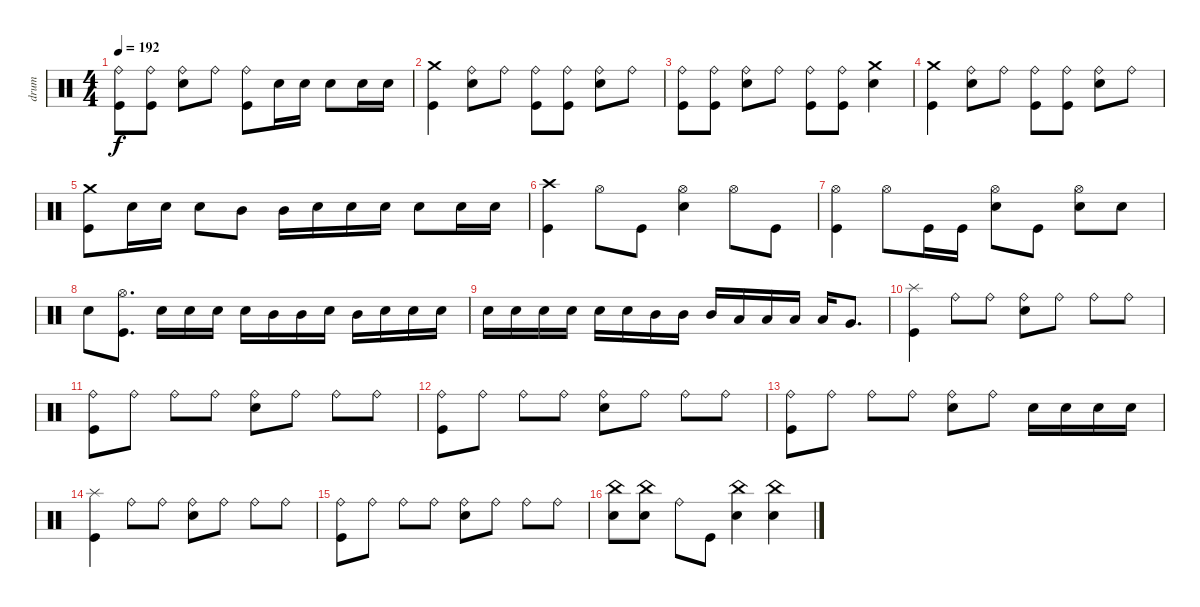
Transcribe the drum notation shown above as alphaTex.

\track ("drum" "drum") {instrument percussion}
\staff {score}
\articulation defaults
\ts (4 4)
\tempo 192
\clef neutral
\ks c
("Kick (hit)" "Ride (bell)").8{dy f} ("Kick (hit)" "Ride (bell)").8 ("Electric Snare (hit)" "Ride (bell)").8 "Ride (bell)".8 ("Kick (hit)" "Ride (bell)").8 "Electric Snare (hit)".16 "Electric Snare (hit)".16 "Electric Snare (hit)".8 "Electric Snare (hit)".16 "Electric Snare (hit)".16 |
("Kick (hit)" "Crash medium (hit)").4 ("Electric Snare (hit)" "Ride (bell)").8 "Ride (bell)".8 ("Kick (hit)" "Ride (bell)").8 ("Kick (hit)" "Ride (bell)").8 ("Electric Snare (hit)" "Ride (bell)").8 "Ride (bell)".8 |
("Kick (hit)" "Ride (bell)").8 ("Kick (hit)" "Ride (bell)").8 ("Electric Snare (hit)" "Ride (bell)").8 "Ride (bell)".8 ("Kick (hit)" "Ride (bell)").8 ("Kick (hit)" "Ride (bell)").8 ("Electric Snare (hit)" "Crash medium (hit)").4 |
("Kick (hit)" "Crash medium (hit)").4 ("Electric Snare (hit)" "Ride (bell)").8 "Ride (bell)".8 ("Kick (hit)" "Ride (bell)").8 ("Kick (hit)" "Ride (bell)").8 ("Electric Snare (hit)" "Ride (bell)").8 "Ride (bell)".8 |
("Kick (hit)" "Crash medium (hit)").8 "Electric Snare (hit)".16 "Electric Snare (hit)".16 "Electric Snare (hit)".8 "Mid Tom (hit)".8 "Mid Tom (hit)".16 "Electric Snare (hit)".16 "Electric Snare (hit)".16 "Electric Snare (hit)".16 "Electric Snare (hit)".8 "Electric Snare (hit)".16 "Electric Snare (hit)".16 |
("Kick (hit)" "Crash high (hit)").4 "Hi-Hat (open)".8 "Kick (hit)".8 ("Electric Snare (hit)" "Hi-Hat (open)").4 "Hi-Hat (open)".8 "Kick (hit)".8 |
("Kick (hit)" "Hi-Hat (open)").4 "Hi-Hat (open)".8 "Kick (hit)".16 "Kick (hit)".16 ("Electric Snare (hit)" "Hi-Hat (open)").8 "Kick (hit)".8 ("Electric Snare (hit)" "Hi-Hat (open)").8 "Electric Snare (hit)".8 |
"Electric Snare (hit)".8 ("Kick (hit)" "Hi-Hat (open)").8{d} "Electric Snare (hit)".16 "Electric Snare (hit)".16 "Electric Snare (hit)".16 "Electric Snare (hit)".16 "Mid Tom (hit)".16 "Mid Tom (hit)".16 "Electric Snare (hit)".16 "Mid Tom (hit)".16 "Electric Snare (hit)".16 "Electric Snare (hit)".16 "Electric Snare (hit)".16 |
"Electric Snare (hit)".16 "Electric Snare (hit)".16 "Electric Snare (hit)".16 "Electric Snare (hit)".16 "Electric Snare (hit)".16 "Electric Snare (hit)".16 "Mid Tom (hit)".16 "Mid Tom (hit)".16 "Mid Tom (hit)".16 "Low Tom (hit)".16 "Low Tom (hit)".16 "Low Tom (hit)".16 "Low Tom (hit)".16 "Very Low Tom (hit)".8{d} |
("Kick (hit)" "Splash (hit)").4 "Ride (bell)".8 "Ride (bell)".8 ("Electric Snare (hit)" "Ride (bell)").8 "Ride (bell)".8 "Ride (bell)".8 "Ride (bell)".8 |
("Kick (hit)" "Ride (bell)").8 "Ride (bell)".8 "Ride (bell)".8 "Ride (bell)".8 ("Electric Snare (hit)" "Ride (bell)").8 "Ride (bell)".8 "Ride (bell)".8 "Ride (bell)".8 |
("Kick (hit)" "Ride (bell)").8 "Ride (bell)".8 "Ride (bell)".8 "Ride (bell)".8 ("Electric Snare (hit)" "Ride (bell)").8 "Ride (bell)".8 "Ride (bell)".8 "Ride (bell)".8 |
("Kick (hit)" "Ride (bell)").8 "Ride (bell)".8 "Ride (bell)".8 "Ride (bell)".8 ("Electric Snare (hit)" "Ride (bell)").8 "Ride (bell)".8 "Electric Snare (hit)".16 "Electric Snare (hit)".16 "Electric Snare (hit)".16 "Electric Snare (hit)".16 |
("Kick (hit)" "Splash (hit)").4 "Ride (bell)".8 "Ride (bell)".8 ("Electric Snare (hit)" "Ride (bell)").8 "Ride (bell)".8 "Ride (bell)".8 "Ride (bell)".8 |
("Kick (hit)" "Ride (bell)").8 "Ride (bell)".8 "Ride (bell)".8 "Ride (bell)".8 ("Electric Snare (hit)" "Ride (bell)").8 "Ride (bell)".8 "Ride (bell)".8 "Ride (bell)".8 |
("Electric Snare (hit)" "China (hit)").8 ("Electric Snare (hit)" "China (hit)").8 "Ride (bell)".8 "Kick (hit)".8 ("Electric Snare (hit)" "China (hit)").4 ("Electric Snare (hit)" "China (hit)").4
